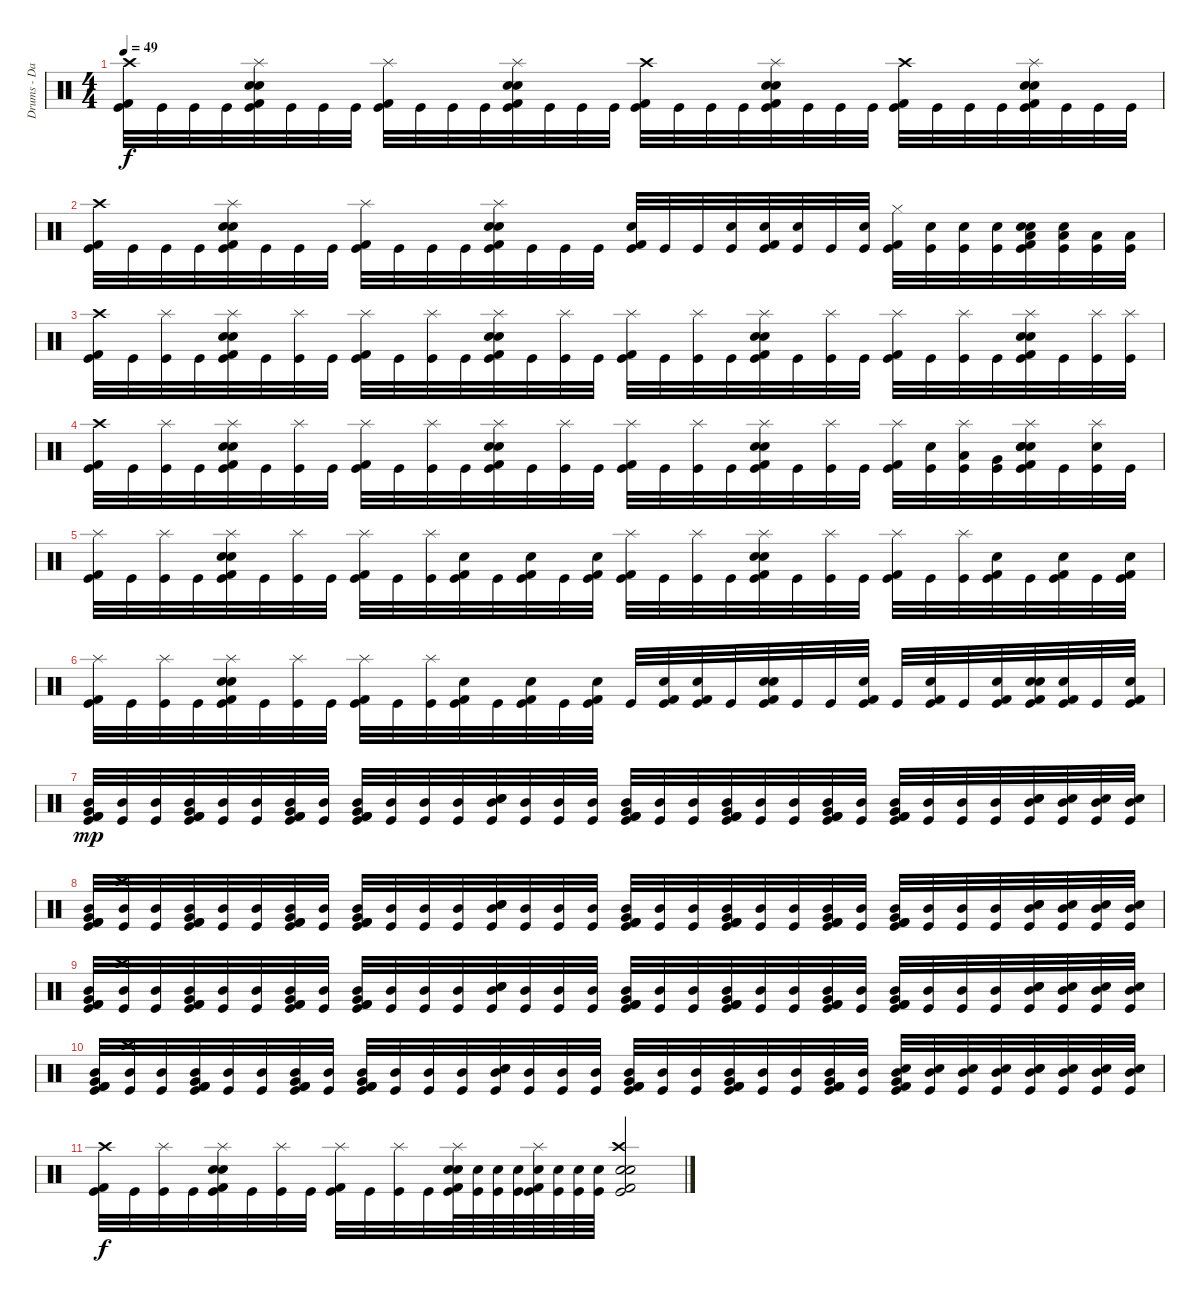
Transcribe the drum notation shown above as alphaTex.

\track ("Drums - Dan Zimmermann" "Drums - Da") {instrument percussion}
\staff {score}
\articulation defaults
\ts (4 4)
\tempo 49
\clef neutral
\ks c
("Kick (hit)" "Kick (hit) 2" "Crash high (hit)").32{dy f} "Kick (hit)".32 "Kick (hit)".32 "Kick (hit)".32 ("Kick (hit)" "Kick (hit) 2" "Snare (hit) 2" "Splash (hit)" "Electric Snare (hit)").32 "Kick (hit)".32 "Kick (hit)".32 "Kick (hit)".32 ("Kick (hit)" "Kick (hit) 2" "Splash (hit)").32 "Kick (hit)".32 "Kick (hit)".32 "Kick (hit)".32 ("Kick (hit)" "Kick (hit) 2" "Snare (hit) 2" "Splash (hit)" "Electric Snare (hit)").32 "Kick (hit)".32 "Kick (hit)".32 "Kick (hit)".32 ("Kick (hit)" "Kick (hit) 2" "Crash high (hit)").32 "Kick (hit)".32 "Kick (hit)".32 "Kick (hit)".32 ("Kick (hit)" "Kick (hit) 2" "Snare (hit) 2" "Splash (hit)" "Electric Snare (hit)").32 "Kick (hit)".32 "Kick (hit)".32 "Kick (hit)".32 ("Kick (hit)" "Kick (hit) 2" "Crash high (hit)").32 "Kick (hit)".32 "Kick (hit)".32 "Kick (hit)".32 ("Kick (hit)" "Kick (hit) 2" "Snare (hit) 2" "Splash (hit)" "Electric Snare (hit)").32 "Kick (hit)".32 "Kick (hit)".32 "Kick (hit)".32 |
("Kick (hit)" "Kick (hit) 2" "Crash high (hit)").32 "Kick (hit)".32 "Kick (hit)".32 "Kick (hit)".32 ("Kick (hit)" "Kick (hit) 2" "Snare (hit) 2" "Splash (hit)" "Electric Snare (hit)").32 "Kick (hit)".32 "Kick (hit)".32 "Kick (hit)".32 ("Kick (hit)" "Kick (hit) 2" "Splash (hit)").32 "Kick (hit)".32 "Kick (hit)".32 "Kick (hit)".32 ("Kick (hit)" "Kick (hit) 2" "Snare (hit) 2" "Splash (hit)" "Electric Snare (hit)").32 "Kick (hit)".32 "Kick (hit)".32 "Kick (hit)".32 ("Kick (hit)" "Kick (hit) 2" "Electric Snare (hit)").32 "Kick (hit)".32 "Kick (hit)".32 ("Kick (hit)" "Electric Snare (hit)").32 ("Kick (hit)" "Kick (hit) 2" "Snare (hit) 2").32 ("Kick (hit)" "Electric Snare (hit)").32 "Kick (hit)".32 ("Kick (hit)" "Electric Snare (hit)").32 ("Kick (hit)" "Kick (hit) 2" "Hi-Hat (closed)").32 ("Kick (hit)" "Electric Snare (hit)").32 ("Kick (hit)" "Electric Snare (hit)").32 ("Kick (hit)" "Electric Snare (hit)").32 ("Kick (hit)" "Kick (hit) 2" "Snare (hit) 2" "Low Tom (hit)" "Electric Snare (hit)").32 ("Kick (hit)" "Low Tom (hit)" "Electric Snare (hit)").32 ("Kick (hit)" "Low Tom (hit)").32 ("Kick (hit)" "Low Tom (hit)").32 |
("Kick (hit)" "Kick (hit) 2" "Crash high (hit)").32 "Kick (hit)".32 ("Kick (hit)" "Splash (hit)").32 "Kick (hit)".32 ("Kick (hit)" "Kick (hit) 2" "Snare (hit) 2" "Splash (hit)" "Electric Snare (hit)").32 "Kick (hit)".32 ("Kick (hit)" "Splash (hit)").32 "Kick (hit)".32 ("Kick (hit)" "Kick (hit) 2" "Splash (hit)").32 "Kick (hit)".32 ("Kick (hit)" "Splash (hit)").32 "Kick (hit)".32 ("Kick (hit)" "Kick (hit) 2" "Snare (hit) 2" "Splash (hit)" "Electric Snare (hit)").32 "Kick (hit)".32 ("Kick (hit)" "Splash (hit)").32 "Kick (hit)".32 ("Kick (hit)" "Kick (hit) 2" "Splash (hit)").32 "Kick (hit)".32 ("Kick (hit)" "Splash (hit)").32 "Kick (hit)".32 ("Kick (hit)" "Kick (hit) 2" "Snare (hit) 2" "Splash (hit)" "Electric Snare (hit)").32 "Kick (hit)".32 ("Kick (hit)" "Splash (hit)").32 "Kick (hit)".32 ("Kick (hit)" "Kick (hit) 2" "Splash (hit)").32 "Kick (hit)".32 ("Kick (hit)" "Splash (hit)").32 "Kick (hit)".32 ("Kick (hit)" "Kick (hit) 2" "Snare (hit) 2" "Splash (hit)" "Electric Snare (hit)").32 "Kick (hit)".32 ("Kick (hit)" "Splash (hit)").32 ("Kick (hit)" "Splash (hit)").32 |
("Kick (hit)" "Kick (hit) 2" "Crash high (hit)").32 "Kick (hit)".32 ("Kick (hit)" "Splash (hit)").32 "Kick (hit)".32 ("Kick (hit)" "Kick (hit) 2" "Snare (hit) 2" "Splash (hit)" "Electric Snare (hit)").32 "Kick (hit)".32 ("Kick (hit)" "Splash (hit)").32 "Kick (hit)".32 ("Kick (hit)" "Kick (hit) 2" "Splash (hit)").32 "Kick (hit)".32 ("Kick (hit)" "Splash (hit)").32 "Kick (hit)".32 ("Kick (hit)" "Kick (hit) 2" "Snare (hit) 2" "Splash (hit)" "Electric Snare (hit)").32 "Kick (hit)".32 ("Kick (hit)" "Splash (hit)").32 "Kick (hit)".32 ("Kick (hit)" "Kick (hit) 2" "Splash (hit)").32 "Kick (hit)".32 ("Kick (hit)" "Splash (hit)").32 "Kick (hit)".32 ("Kick (hit)" "Kick (hit) 2" "Snare (hit) 2" "Splash (hit)" "Electric Snare (hit)").32 "Kick (hit)".32 ("Kick (hit)" "Splash (hit)").32 "Kick (hit)".32 ("Kick (hit)" "Kick (hit) 2" "Splash (hit)").32 ("Kick (hit)" "Electric Snare (hit)").32 ("Kick (hit)" "Splash (hit)" "Low Tom (hit)").32 ("Kick (hit)" "Very Low Tom (hit)").32 ("Kick (hit)" "Kick (hit) 2" "Snare (hit) 2" "Splash (hit)" "Electric Snare (hit)" "Electric Snare (hit)").32 "Kick (hit)".32 ("Kick (hit)" "Splash (hit)" "Electric Snare (hit)").32 "Kick (hit)".32 |
("Kick (hit)" "Kick (hit) 2" "Splash (hit)").32 "Kick (hit)".32 ("Kick (hit)" "Splash (hit)").32 "Kick (hit)".32 ("Kick (hit)" "Kick (hit) 2" "Snare (hit) 2" "Splash (hit)" "Electric Snare (hit)").32 "Kick (hit)".32 ("Kick (hit)" "Splash (hit)").32 "Kick (hit)".32 ("Kick (hit)" "Kick (hit) 2" "Splash (hit)").32 "Kick (hit)".32 ("Kick (hit)" "Splash (hit)").32 ("Kick (hit)" "Kick (hit) 2" "Electric Snare (hit)").32 "Kick (hit)".32 ("Kick (hit)" "Kick (hit) 2" "Electric Snare (hit)").32 "Kick (hit)".32 ("Kick (hit)" "Kick (hit) 2" "Electric Snare (hit)").32 ("Kick (hit)" "Kick (hit) 2" "Splash (hit)").32 "Kick (hit)".32 ("Kick (hit)" "Splash (hit)").32 "Kick (hit)".32 ("Kick (hit)" "Kick (hit) 2" "Snare (hit) 2" "Splash (hit)" "Electric Snare (hit)").32 "Kick (hit)".32 ("Kick (hit)" "Splash (hit)").32 "Kick (hit)".32 ("Kick (hit)" "Kick (hit) 2" "Splash (hit)").32 "Kick (hit)".32 ("Kick (hit)" "Splash (hit)").32 ("Kick (hit)" "Kick (hit) 2" "Electric Snare (hit)").32 "Kick (hit)".32 ("Kick (hit)" "Kick (hit) 2" "Electric Snare (hit)").32 "Kick (hit)".32 ("Kick (hit)" "Kick (hit) 2" "Electric Snare (hit)").32 |
("Kick (hit)" "Kick (hit) 2" "Splash (hit)").32 "Kick (hit)".32 ("Kick (hit)" "Splash (hit)").32 "Kick (hit)".32 ("Kick (hit)" "Kick (hit) 2" "Snare (hit) 2" "Splash (hit)" "Electric Snare (hit)").32 "Kick (hit)".32 ("Kick (hit)" "Splash (hit)").32 "Kick (hit)".32 ("Kick (hit)" "Kick (hit) 2" "Splash (hit)").32 "Kick (hit)".32 ("Kick (hit)" "Splash (hit)").32 ("Kick (hit)" "Kick (hit) 2" "Electric Snare (hit)").32 "Kick (hit)".32 ("Kick (hit)" "Kick (hit) 2" "Electric Snare (hit)").32 "Kick (hit)".32 ("Kick (hit)" "Kick (hit) 2" "Electric Snare (hit)").32 "Kick (hit)".32 ("Kick (hit)" "Kick (hit) 2" "Electric Snare (hit)").32 ("Kick (hit)" "Kick (hit) 2" "Electric Snare (hit)").32 "Kick (hit)".32 ("Kick (hit)" "Kick (hit) 2" "Electric Snare (hit)" "Electric Snare (hit)").32 "Kick (hit)".32 "Kick (hit)".32 ("Kick (hit)" "Kick (hit) 2" "Electric Snare (hit)").32 "Kick (hit)".32 ("Kick (hit)" "Kick (hit) 2" "Electric Snare (hit)").32 "Kick (hit)".32 ("Kick (hit)" "Kick (hit) 2" "Electric Snare (hit)").32 ("Kick (hit)" "Kick (hit) 2" "Electric Snare (hit)" "Electric Snare (hit)").32 ("Kick (hit)" "Kick (hit) 2" "Electric Snare (hit)").32 "Kick (hit)".32 ("Kick (hit)" "Kick (hit) 2" "Electric Snare (hit)").32 |
("Kick (hit)" "Kick (hit) 2" "Kick (hit) 2" "Very Low Tom (hit)" "Mid Tom (hit)").32{dy mp} ("Kick (hit)" "Mid Tom (hit)").32 ("Kick (hit)" "Mid Tom (hit)").32 ("Kick (hit)" "Kick (hit) 2" "Kick (hit) 2" "Very Low Tom (hit)" "Mid Tom (hit)").32 ("Kick (hit)" "Mid Tom (hit)").32 ("Kick (hit)" "Mid Tom (hit)").32 ("Kick (hit)" "Kick (hit) 2" "Kick (hit) 2" "Very Low Tom (hit)" "Mid Tom (hit)").32 ("Kick (hit)" "Mid Tom (hit)").32 ("Kick (hit)" "Kick (hit) 2" "Kick (hit) 2" "Very Low Tom (hit)" "Mid Tom (hit)").32 ("Kick (hit)" "Mid Tom (hit)").32 ("Kick (hit)" "Mid Tom (hit)").32 ("Kick (hit)" "Mid Tom (hit)").32 ("Kick (hit)" "Snare (hit) 2" "Electric Snare (hit)" "Mid Tom (hit)").32 ("Kick (hit)" "Mid Tom (hit)").32 ("Kick (hit)" "Mid Tom (hit)").32 ("Kick (hit)" "Mid Tom (hit)").32 ("Kick (hit)" "Kick (hit) 2" "Kick (hit) 2" "Very Low Tom (hit)" "Mid Tom (hit)").32 ("Kick (hit)" "Mid Tom (hit)").32 ("Kick (hit)" "Mid Tom (hit)").32 ("Kick (hit)" "Kick (hit) 2" "Kick (hit) 2" "Very Low Tom (hit)" "Mid Tom (hit)").32 ("Kick (hit)" "Mid Tom (hit)").32 ("Kick (hit)" "Mid Tom (hit)").32 ("Kick (hit)" "Kick (hit) 2" "Kick (hit) 2" "Very Low Tom (hit)" "Mid Tom (hit)").32 ("Kick (hit)" "Mid Tom (hit)").32 ("Kick (hit)" "Kick (hit) 2" "Kick (hit) 2" "Very Low Tom (hit)" "Mid Tom (hit)").32 ("Kick (hit)" "Mid Tom (hit)").32 ("Kick (hit)" "Mid Tom (hit)").32 ("Kick (hit)" "Mid Tom (hit)").32 ("Kick (hit)" "Snare (hit) 2" "Electric Snare (hit)" "Mid Tom (hit)").32 ("Kick (hit)" "Electric Snare (hit)" "Mid Tom (hit)").32 ("Kick (hit)" "Electric Snare (hit)" "Mid Tom (hit)").32 ("Kick (hit)" "Electric Snare (hit)" "Mid Tom (hit)").32 |
("Kick (hit)" "Kick (hit) 2" "Kick (hit) 2" "Very Low Tom (hit)" "Mid Tom (hit)").32 ("Kick (hit)" "Crash high (hit)" "Mid Tom (hit)").32 ("Kick (hit)" "Mid Tom (hit)").32 ("Kick (hit)" "Kick (hit) 2" "Kick (hit) 2" "Very Low Tom (hit)" "Mid Tom (hit)").32 ("Kick (hit)" "Mid Tom (hit)").32 ("Kick (hit)" "Mid Tom (hit)").32 ("Kick (hit)" "Kick (hit) 2" "Kick (hit) 2" "Very Low Tom (hit)" "Mid Tom (hit)").32 ("Kick (hit)" "Mid Tom (hit)").32 ("Kick (hit)" "Kick (hit) 2" "Kick (hit) 2" "Very Low Tom (hit)" "Mid Tom (hit)").32 ("Kick (hit)" "Mid Tom (hit)").32 ("Kick (hit)" "Mid Tom (hit)").32 ("Kick (hit)" "Mid Tom (hit)").32 ("Kick (hit)" "Snare (hit) 2" "Electric Snare (hit)" "Mid Tom (hit)").32 ("Kick (hit)" "Mid Tom (hit)").32 ("Kick (hit)" "Mid Tom (hit)").32 ("Kick (hit)" "Mid Tom (hit)").32 ("Kick (hit)" "Kick (hit) 2" "Kick (hit) 2" "Very Low Tom (hit)" "Mid Tom (hit)").32 ("Kick (hit)" "Mid Tom (hit)").32 ("Kick (hit)" "Mid Tom (hit)").32 ("Kick (hit)" "Kick (hit) 2" "Kick (hit) 2" "Very Low Tom (hit)" "Mid Tom (hit)").32 ("Kick (hit)" "Mid Tom (hit)").32 ("Kick (hit)" "Mid Tom (hit)").32 ("Kick (hit)" "Kick (hit) 2" "Kick (hit) 2" "Very Low Tom (hit)" "Mid Tom (hit)").32 ("Kick (hit)" "Mid Tom (hit)").32 ("Kick (hit)" "Kick (hit) 2" "Kick (hit) 2" "Very Low Tom (hit)" "Mid Tom (hit)").32 ("Kick (hit)" "Mid Tom (hit)").32 ("Kick (hit)" "Mid Tom (hit)").32 ("Kick (hit)" "Mid Tom (hit)").32 ("Kick (hit)" "Snare (hit) 2" "Electric Snare (hit)" "Mid Tom (hit)").32 ("Kick (hit)" "Electric Snare (hit)" "Mid Tom (hit)").32 ("Kick (hit)" "Electric Snare (hit)" "Mid Tom (hit)").32 ("Kick (hit)" "Electric Snare (hit)" "Mid Tom (hit)").32 |
("Kick (hit)" "Kick (hit) 2" "Kick (hit) 2" "Very Low Tom (hit)" "Mid Tom (hit)").32 ("Kick (hit)" "Crash high (hit)" "Mid Tom (hit)").32 ("Kick (hit)" "Mid Tom (hit)").32 ("Kick (hit)" "Kick (hit) 2" "Kick (hit) 2" "Very Low Tom (hit)" "Mid Tom (hit)").32 ("Kick (hit)" "Mid Tom (hit)").32 ("Kick (hit)" "Mid Tom (hit)").32 ("Kick (hit)" "Kick (hit) 2" "Kick (hit) 2" "Very Low Tom (hit)" "Mid Tom (hit)").32 ("Kick (hit)" "Mid Tom (hit)").32 ("Kick (hit)" "Kick (hit) 2" "Kick (hit) 2" "Very Low Tom (hit)" "Mid Tom (hit)").32 ("Kick (hit)" "Mid Tom (hit)").32 ("Kick (hit)" "Mid Tom (hit)").32 ("Kick (hit)" "Mid Tom (hit)").32 ("Kick (hit)" "Snare (hit) 2" "Electric Snare (hit)" "Mid Tom (hit)").32 ("Kick (hit)" "Mid Tom (hit)").32 ("Kick (hit)" "Mid Tom (hit)").32 ("Kick (hit)" "Mid Tom (hit)").32 ("Kick (hit)" "Kick (hit) 2" "Kick (hit) 2" "Very Low Tom (hit)" "Mid Tom (hit)").32 ("Kick (hit)" "Mid Tom (hit)").32 ("Kick (hit)" "Mid Tom (hit)").32 ("Kick (hit)" "Kick (hit) 2" "Kick (hit) 2" "Very Low Tom (hit)" "Mid Tom (hit)").32 ("Kick (hit)" "Mid Tom (hit)").32 ("Kick (hit)" "Mid Tom (hit)").32 ("Kick (hit)" "Kick (hit) 2" "Kick (hit) 2" "Very Low Tom (hit)" "Mid Tom (hit)").32 ("Kick (hit)" "Mid Tom (hit)").32 ("Kick (hit)" "Kick (hit) 2" "Kick (hit) 2" "Very Low Tom (hit)" "Mid Tom (hit)").32 ("Kick (hit)" "Mid Tom (hit)").32 ("Kick (hit)" "Mid Tom (hit)").32 ("Kick (hit)" "Mid Tom (hit)").32 ("Kick (hit)" "Snare (hit) 2" "Electric Snare (hit)" "Mid Tom (hit)").32 ("Kick (hit)" "Electric Snare (hit)" "Mid Tom (hit)").32 ("Kick (hit)" "Electric Snare (hit)" "Mid Tom (hit)").32 ("Kick (hit)" "Electric Snare (hit)" "Mid Tom (hit)").32 |
("Kick (hit)" "Kick (hit) 2" "Kick (hit) 2" "Very Low Tom (hit)" "Mid Tom (hit)").32 ("Kick (hit)" "Crash high (hit)" "Mid Tom (hit)").32 ("Kick (hit)" "Mid Tom (hit)").32 ("Kick (hit)" "Kick (hit) 2" "Kick (hit) 2" "Very Low Tom (hit)" "Mid Tom (hit)").32 ("Kick (hit)" "Mid Tom (hit)").32 ("Kick (hit)" "Mid Tom (hit)").32 ("Kick (hit)" "Kick (hit) 2" "Kick (hit) 2" "Very Low Tom (hit)" "Mid Tom (hit)").32 ("Kick (hit)" "Mid Tom (hit)").32 ("Kick (hit)" "Kick (hit) 2" "Kick (hit) 2" "Very Low Tom (hit)" "Mid Tom (hit)").32 ("Kick (hit)" "Mid Tom (hit)").32 ("Kick (hit)" "Mid Tom (hit)").32 ("Kick (hit)" "Mid Tom (hit)").32 ("Kick (hit)" "Snare (hit) 2" "Electric Snare (hit)" "Mid Tom (hit)").32 ("Kick (hit)" "Mid Tom (hit)").32 ("Kick (hit)" "Mid Tom (hit)").32 ("Kick (hit)" "Mid Tom (hit)").32 ("Kick (hit)" "Kick (hit) 2" "Kick (hit) 2" "Very Low Tom (hit)" "Mid Tom (hit)").32 ("Kick (hit)" "Mid Tom (hit)").32 ("Kick (hit)" "Mid Tom (hit)").32 ("Kick (hit)" "Kick (hit) 2" "Kick (hit) 2" "Very Low Tom (hit)" "Mid Tom (hit)").32 ("Kick (hit)" "Mid Tom (hit)").32 ("Kick (hit)" "Mid Tom (hit)").32 ("Kick (hit)" "Kick (hit) 2" "Kick (hit) 2" "Very Low Tom (hit)" "Mid Tom (hit)").32 ("Kick (hit)" "Mid Tom (hit)").32 ("Kick (hit)" "Kick (hit) 2" "Electric Snare (hit)" "Very Low Tom (hit)" "Mid Tom (hit)").32 ("Kick (hit)" "Electric Snare (hit)" "Mid Tom (hit)").32 ("Kick (hit)" "Electric Snare (hit)" "Mid Tom (hit)").32 ("Kick (hit)" "Electric Snare (hit)" "Mid Tom (hit)").32 ("Kick (hit)" "Snare (hit) 2" "Electric Snare (hit)" "Mid Tom (hit)").32 ("Kick (hit)" "Electric Snare (hit)" "Mid Tom (hit)").32 ("Kick (hit)" "Electric Snare (hit)" "Mid Tom (hit)").32 ("Kick (hit)" "Electric Snare (hit)" "Mid Tom (hit)").32 |
("Kick (hit)" "Kick (hit) 2" "Crash high (hit)").32{dy f} "Kick (hit)".32 ("Kick (hit)" "Splash (hit)").32 "Kick (hit)".32 ("Kick (hit)" "Kick (hit) 2" "Snare (hit) 2" "Splash (hit)" "Electric Snare (hit)").32 "Kick (hit)".32 ("Kick (hit)" "Splash (hit)").32 "Kick (hit)".32 ("Kick (hit)" "Kick (hit) 2" "Splash (hit)").32 "Kick (hit)".32 ("Kick (hit)" "Splash (hit)").32 "Kick (hit)".32 ("Kick (hit)" "Kick (hit) 2" "Snare (hit) 2" "Splash (hit)" "Electric Snare (hit)").64 ("Kick (hit)" "Electric Snare (hit)").64 ("Kick (hit)" "Electric Snare (hit)").64 ("Kick (hit)" "Electric Snare (hit)").64 ("Kick (hit)" "Kick (hit) 2" "Splash (hit)" "Electric Snare (hit)").64 ("Kick (hit)" "Electric Snare (hit)").64 ("Kick (hit)" "Electric Snare (hit)").64 ("Kick (hit)" "Electric Snare (hit)").64 ("Kick (hit)" "Kick (hit) 2" "Snare (hit) 2" "Crash high (hit)" "Electric Snare (hit)").2
